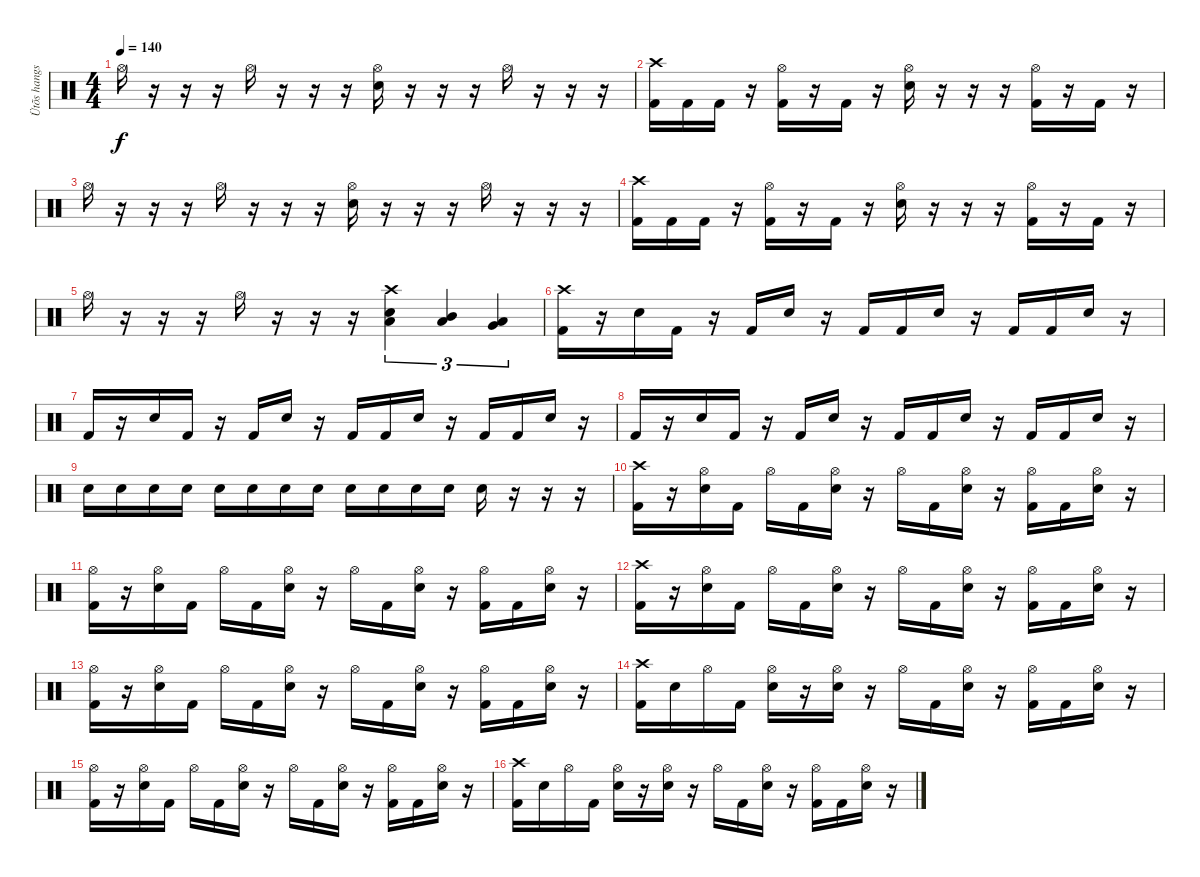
\track ("Ütõs hangszer" "Ütõs hangs") {instrument percussion}
\staff {score}
\articulation defaults
\ts (4 4)
\tempo 140
\clef neutral
\ks c "Hi-Hat (open)".16{dy f}
r.16 r.16 r.16 "Hi-Hat (open)".16 r.16 r.16 r.16 ("Hi-Hat (open)" "Snare (hit) 2").16 r.16 r.16 r.16 "Hi-Hat (open)".16 r.16 r.16 r.16 |
("Crash high (hit)" "Kick (hit) 2").16 "Kick (hit) 2".16 "Kick (hit) 2".16 r.16 ("Hi-Hat (open)" "Kick (hit) 2").16 r.16 "Kick (hit) 2".16 r.16 ("Hi-Hat (open)" "Snare (hit) 2").16 r.16 r.16 r.16 ("Hi-Hat (open)" "Kick (hit) 2").16 r.16 "Kick (hit) 2".16 r.16 |
"Hi-Hat (open)".16 r.16 r.16 r.16 "Hi-Hat (open)".16 r.16 r.16 r.16 ("Hi-Hat (open)" "Snare (hit) 2").16 r.16 r.16 r.16 "Hi-Hat (open)".16 r.16 r.16 r.16 |
("Crash high (hit)" "Kick (hit) 2").16 "Kick (hit) 2".16 "Kick (hit) 2".16 r.16 ("Hi-Hat (open)" "Kick (hit) 2").16 r.16 "Kick (hit) 2".16 r.16 ("Hi-Hat (open)" "Snare (hit) 2").16 r.16 r.16 r.16 ("Hi-Hat (open)" "Kick (hit) 2").16 r.16 "Kick (hit) 2".16 r.16 |
"Hi-Hat (open)".16 r.16 r.16 r.16 "Hi-Hat (open)".16 r.16 r.16 r.16 ("Crash high (hit)" "Snare (hit) 2" "Low Tom (hit)").4{tu (3 2)} ("Mid Tom (hit)" "Low Tom (hit)").4{tu (3 2)} ("Low Tom (hit)" "Very Low Tom (hit)").4{tu (3 2)} |
("Crash high (hit)" "Kick (hit) 2").16 r.16 "Snare (hit) 2".16 "Kick (hit) 2".16 r.16 "Kick (hit) 2".16 "Snare (hit) 2".16 r.16 "Kick (hit) 2".16 "Kick (hit) 2".16 "Snare (hit) 2".16 r.16 "Kick (hit) 2".16 "Kick (hit) 2".16 "Snare (hit) 2".16 r.16 |
"Kick (hit) 2".16 r.16 "Snare (hit) 2".16 "Kick (hit) 2".16 r.16 "Kick (hit) 2".16 "Snare (hit) 2".16 r.16 "Kick (hit) 2".16 "Kick (hit) 2".16 "Snare (hit) 2".16 r.16 "Kick (hit) 2".16 "Kick (hit) 2".16 "Snare (hit) 2".16 r.16 |
"Kick (hit) 2".16 r.16 "Snare (hit) 2".16 "Kick (hit) 2".16 r.16 "Kick (hit) 2".16 "Snare (hit) 2".16 r.16 "Kick (hit) 2".16 "Kick (hit) 2".16 "Snare (hit) 2".16 r.16 "Kick (hit) 2".16 "Kick (hit) 2".16 "Snare (hit) 2".16 r.16 |
"Snare (hit) 2".16 "Snare (hit) 2".16 "Snare (hit) 2".16 "Snare (hit) 2".16 "Snare (hit) 2".16 "Snare (hit) 2".16 "Snare (hit) 2".16 "Snare (hit) 2".16 "Snare (hit) 2".16 "Snare (hit) 2".16 "Snare (hit) 2".16 "Snare (hit) 2".16 "Snare (hit) 2".16 r.16 r.16 r.16 |
("Crash high (hit)" "Kick (hit) 2").16 r.16 ("Hi-Hat (open)" "Snare (hit) 2").16 "Kick (hit) 2".16 "Hi-Hat (open)".16 "Kick (hit) 2".16 ("Hi-Hat (open)" "Snare (hit) 2").16 r.16 "Hi-Hat (open)".16 "Kick (hit) 2".16 ("Hi-Hat (open)" "Snare (hit) 2").16 r.16 ("Hi-Hat (open)" "Kick (hit) 2").16 "Kick (hit) 2".16 ("Hi-Hat (open)" "Snare (hit) 2").16 r.16 |
("Hi-Hat (open)" "Kick (hit) 2").16 r.16 ("Hi-Hat (open)" "Snare (hit) 2").16 "Kick (hit) 2".16 "Hi-Hat (open)".16 "Kick (hit) 2".16 ("Hi-Hat (open)" "Snare (hit) 2").16 r.16 "Hi-Hat (open)".16 "Kick (hit) 2".16 ("Hi-Hat (open)" "Snare (hit) 2").16 r.16 ("Hi-Hat (open)" "Kick (hit) 2").16 "Kick (hit) 2".16 ("Hi-Hat (open)" "Snare (hit) 2").16 r.16 |
("Crash high (hit)" "Kick (hit) 2").16 r.16 ("Hi-Hat (open)" "Snare (hit) 2").16 "Kick (hit) 2".16 "Hi-Hat (open)".16 "Kick (hit) 2".16 ("Hi-Hat (open)" "Snare (hit) 2").16 r.16 "Hi-Hat (open)".16 "Kick (hit) 2".16 ("Hi-Hat (open)" "Snare (hit) 2").16 r.16 ("Hi-Hat (open)" "Kick (hit) 2").16 "Kick (hit) 2".16 ("Hi-Hat (open)" "Snare (hit) 2").16 r.16 |
("Hi-Hat (open)" "Kick (hit) 2").16 r.16 ("Hi-Hat (open)" "Snare (hit) 2").16 "Kick (hit) 2".16 "Hi-Hat (open)".16 "Kick (hit) 2".16 ("Hi-Hat (open)" "Snare (hit) 2").16 r.16 "Hi-Hat (open)".16 "Kick (hit) 2".16 ("Hi-Hat (open)" "Snare (hit) 2").16 r.16 ("Hi-Hat (open)" "Kick (hit) 2").16 "Kick (hit) 2".16 ("Hi-Hat (open)" "Snare (hit) 2").16 r.16 |
("Crash high (hit)" "Kick (hit) 2").16 "Snare (hit) 2".16 "Hi-Hat (open)".16 "Kick (hit) 2".16 ("Hi-Hat (open)" "Snare (hit) 2").16 r.16 ("Hi-Hat (open)" "Snare (hit) 2").16 r.16 "Hi-Hat (open)".16 "Kick (hit) 2".16 ("Hi-Hat (open)" "Snare (hit) 2").16 r.16 ("Hi-Hat (open)" "Kick (hit) 2").16 "Kick (hit) 2".16 ("Hi-Hat (open)" "Snare (hit) 2").16 r.16 |
("Hi-Hat (open)" "Kick (hit) 2").16 r.16 ("Hi-Hat (open)" "Snare (hit) 2").16 "Kick (hit) 2".16 "Hi-Hat (open)".16 "Kick (hit) 2".16 ("Hi-Hat (open)" "Snare (hit) 2").16 r.16 "Hi-Hat (open)".16 "Kick (hit) 2".16 ("Hi-Hat (open)" "Snare (hit) 2").16 r.16 ("Hi-Hat (open)" "Kick (hit) 2").16 "Kick (hit) 2".16 ("Hi-Hat (open)" "Snare (hit) 2").16 r.16 |
("Crash high (hit)" "Kick (hit) 2").16 "Snare (hit) 2".16 "Hi-Hat (open)".16 "Kick (hit) 2".16 ("Hi-Hat (open)" "Snare (hit) 2").16 r.16 ("Hi-Hat (open)" "Snare (hit) 2").16 r.16 "Hi-Hat (open)".16 "Kick (hit) 2".16 ("Hi-Hat (open)" "Snare (hit) 2").16 r.16 ("Hi-Hat (open)" "Kick (hit) 2").16 "Kick (hit) 2".16 ("Hi-Hat (open)" "Snare (hit) 2").16 r.16
